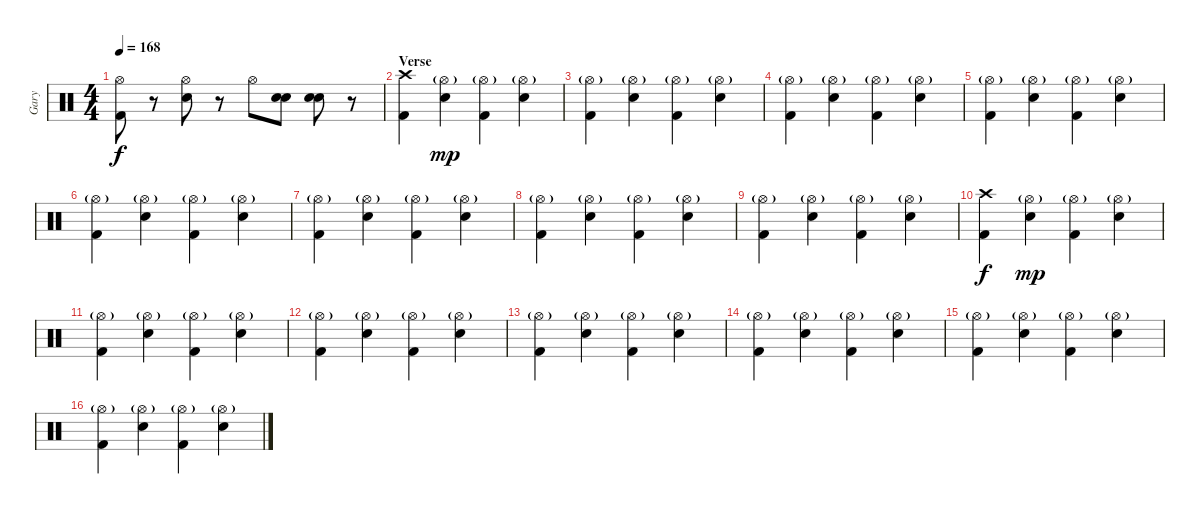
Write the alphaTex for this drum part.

\track ("Gary" "Gary") {instrument percussion}
\staff {score}
\articulation defaults
\ts (4 4)
\tempo 168
\clef neutral
\ks c
("Hi-Hat (open)" "Kick (hit) 2").8{dy f} r.8 ("Hi-Hat (open)" "Electric Snare (hit)").8 r.8 "Hi-Hat (open)".8 ("Electric Snare (hit)" "Electric Snare (hit)").8 ("Electric Snare (hit)" "Electric Snare (hit)").8 r.8 |
\section ("" "Verse")
("Crash high (hit)" "Kick (hit) 2").4 ("Hi-Hat (open)"{g} "Electric Snare (hit)").4{dy mp} ("Hi-Hat (open)"{g} "Kick (hit) 2").4 ("Hi-Hat (open)"{g} "Electric Snare (hit)").4 |
("Hi-Hat (open)"{g} "Kick (hit) 2").4 ("Hi-Hat (open)"{g} "Electric Snare (hit)").4 ("Hi-Hat (open)"{g} "Kick (hit) 2").4 ("Hi-Hat (open)"{g} "Electric Snare (hit)").4 |
("Hi-Hat (open)"{g} "Kick (hit) 2").4 ("Hi-Hat (open)"{g} "Electric Snare (hit)").4 ("Hi-Hat (open)"{g} "Kick (hit) 2").4 ("Hi-Hat (open)"{g} "Electric Snare (hit)").4 |
("Hi-Hat (open)"{g} "Kick (hit) 2").4 ("Hi-Hat (open)"{g} "Electric Snare (hit)").4 ("Hi-Hat (open)"{g} "Kick (hit) 2").4 ("Hi-Hat (open)"{g} "Electric Snare (hit)").4 |
("Hi-Hat (open)"{g} "Kick (hit) 2").4 ("Hi-Hat (open)"{g} "Electric Snare (hit)").4 ("Hi-Hat (open)"{g} "Kick (hit) 2").4 ("Hi-Hat (open)"{g} "Electric Snare (hit)").4 |
("Hi-Hat (open)"{g} "Kick (hit) 2").4 ("Hi-Hat (open)"{g} "Electric Snare (hit)").4 ("Hi-Hat (open)"{g} "Kick (hit) 2").4 ("Hi-Hat (open)"{g} "Electric Snare (hit)").4 |
("Hi-Hat (open)"{g} "Kick (hit) 2").4 ("Hi-Hat (open)"{g} "Electric Snare (hit)").4 ("Hi-Hat (open)"{g} "Kick (hit) 2").4 ("Hi-Hat (open)"{g} "Electric Snare (hit)").4 |
("Hi-Hat (open)"{g} "Kick (hit) 2").4 ("Hi-Hat (open)"{g} "Electric Snare (hit)").4 ("Hi-Hat (open)"{g} "Kick (hit) 2").4 ("Hi-Hat (open)"{g} "Electric Snare (hit)").4 |
("Crash high (hit)" "Kick (hit) 2").4{dy f} ("Hi-Hat (open)"{g} "Electric Snare (hit)").4{dy mp} ("Hi-Hat (open)"{g} "Kick (hit) 2").4 ("Hi-Hat (open)"{g} "Electric Snare (hit)").4 |
("Hi-Hat (open)"{g} "Kick (hit) 2").4 ("Hi-Hat (open)"{g} "Electric Snare (hit)").4 ("Hi-Hat (open)"{g} "Kick (hit) 2").4 ("Hi-Hat (open)"{g} "Electric Snare (hit)").4 |
("Hi-Hat (open)"{g} "Kick (hit) 2").4 ("Hi-Hat (open)"{g} "Electric Snare (hit)").4 ("Hi-Hat (open)"{g} "Kick (hit) 2").4 ("Hi-Hat (open)"{g} "Electric Snare (hit)").4 |
("Hi-Hat (open)"{g} "Kick (hit) 2").4 ("Hi-Hat (open)"{g} "Electric Snare (hit)").4 ("Hi-Hat (open)"{g} "Kick (hit) 2").4 ("Hi-Hat (open)"{g} "Electric Snare (hit)").4 |
("Hi-Hat (open)"{g} "Kick (hit) 2").4 ("Hi-Hat (open)"{g} "Electric Snare (hit)").4 ("Hi-Hat (open)"{g} "Kick (hit) 2").4 ("Hi-Hat (open)"{g} "Electric Snare (hit)").4 |
("Hi-Hat (open)"{g} "Kick (hit) 2").4 ("Hi-Hat (open)"{g} "Electric Snare (hit)").4 ("Hi-Hat (open)"{g} "Kick (hit) 2").4 ("Hi-Hat (open)"{g} "Electric Snare (hit)").4 |
("Hi-Hat (open)"{g} "Kick (hit) 2").4 ("Hi-Hat (open)"{g} "Electric Snare (hit)").4 ("Hi-Hat (open)"{g} "Kick (hit) 2").4 ("Hi-Hat (open)"{g} "Electric Snare (hit)").4
